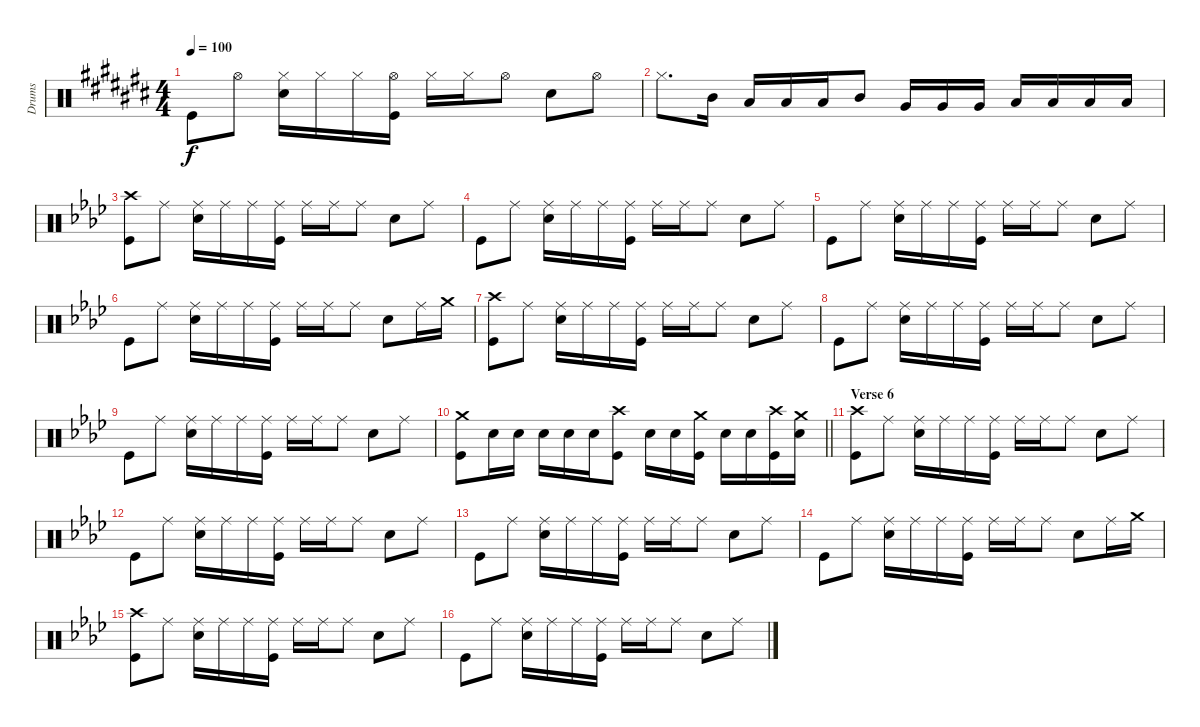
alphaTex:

\track ("Drums" "Drums") {instrument percussion}
\staff {score}
\articulation defaults
\ts (4 4)
\tempo 100
\clef neutral
\ks c# "Kick (hit)".8{dy f} "Hi-Hat (open)".8
("Hi-Hat (closed)" "Snare (hit) 2").16 "Hi-Hat (closed)".16 "Hi-Hat (closed)".16 ("Hi-Hat (open)" "Kick (hit)").16 "Hi-Hat (closed)".16 "Hi-Hat (closed)".16 "Hi-Hat (open)".8 "Snare (hit) 2".8 "Hi-Hat (open)".8 |
"Hi-Hat (closed)".8{d} "Mid Tom (hit)".16 "Low Tom (hit)".16 "Low Tom (hit)".16 "Low Tom (hit)".16 "Mid Tom (hit)".8 "Very Low Tom (hit)".16 "Very Low Tom (hit)".16 "Very Low Tom (hit)".16 "Low Floor Tom (hit)".16 "Low Floor Tom (hit)".16 "Low Floor Tom (hit)".16 "Low Floor Tom (hit)".16 |
\ks ab
("Crash high (hit)" "Kick (hit)").8 "Ride (middle)".8 ("Ride (middle)" "Snare (hit) 2").16 "Ride (middle)".16 "Ride (middle)".16 ("Ride (middle)" "Kick (hit)").16 "Ride (middle)".16 "Ride (middle)".16 "Ride (middle)".8 "Snare (hit) 2".8 "Ride (middle)".8 |
"Kick (hit)".8 "Ride (middle)".8 ("Ride (middle)" "Snare (hit) 2").16 "Ride (middle)".16 "Ride (middle)".16 ("Ride (middle)" "Kick (hit)").16 "Ride (middle)".16 "Ride (middle)".16 "Ride (middle)".8 "Snare (hit) 2".8 "Ride (middle)".8 |
"Kick (hit)".8 "Ride (middle)".8 ("Ride (middle)" "Snare (hit) 2").16 "Ride (middle)".16 "Ride (middle)".16 ("Ride (middle)" "Kick (hit)").16 "Ride (middle)".16 "Ride (middle)".16 "Ride (middle)".8 "Snare (hit) 2".8 "Ride (middle)".8 |
"Kick (hit)".8 "Ride (middle)".8 ("Ride (middle)" "Snare (hit) 2").16 "Ride (middle)".16 "Ride (middle)".16 ("Ride (middle)" "Kick (hit)").16 "Ride (middle)".16 "Ride (middle)".16 "Ride (middle)".8 "Snare (hit) 2".8 "Ride (middle)".16 "Crash medium (hit)".16 |
("Crash high (hit)" "Kick (hit)").8 "Ride (middle)".8 ("Ride (middle)" "Snare (hit) 2").16 "Ride (middle)".16 "Ride (middle)".16 ("Ride (middle)" "Kick (hit)").16 "Ride (middle)".16 "Ride (middle)".16 "Ride (middle)".8 "Snare (hit) 2".8 "Ride (middle)".8 |
"Kick (hit)".8 "Ride (middle)".8 ("Ride (middle)" "Snare (hit) 2").16 "Ride (middle)".16 "Ride (middle)".16 ("Ride (middle)" "Kick (hit)").16 "Ride (middle)".16 "Ride (middle)".16 "Ride (middle)".8 "Snare (hit) 2".8 "Ride (middle)".8 |
"Kick (hit)".8 "Ride (middle)".8 ("Ride (middle)" "Snare (hit) 2").16 "Ride (middle)".16 "Ride (middle)".16 ("Ride (middle)" "Kick (hit)").16 "Ride (middle)".16 "Ride (middle)".16 "Ride (middle)".8 "Snare (hit) 2".8 "Ride (middle)".8 |
\barLineRight lightlight
("Crash medium (hit)" "Kick (hit)").8 "Snare (hit) 2".16 "Snare (hit) 2".16 "Snare (hit) 2".16 "Snare (hit) 2".16 "Snare (hit) 2".16 ("Crash high (hit)" "Kick (hit)").8 "Snare (hit) 2".16 "Snare (hit) 2".16 ("Crash medium (hit)" "Kick (hit)").16 "Snare (hit) 2".16 "Snare (hit) 2".16 ("Crash high (hit)" "Kick (hit)").16 ("Crash medium (hit)" "Snare (hit) 2").16 |
\section ("" "Verse 6")
("Crash high (hit)" "Kick (hit)").8 "Ride (middle)".8 ("Ride (middle)" "Snare (hit) 2").16 "Ride (middle)".16 "Ride (middle)".16 ("Ride (middle)" "Kick (hit)").16 "Ride (middle)".16 "Ride (middle)".16 "Ride (middle)".8 "Snare (hit) 2".8 "Ride (middle)".8 |
"Kick (hit)".8 "Ride (middle)".8 ("Ride (middle)" "Snare (hit) 2").16 "Ride (middle)".16 "Ride (middle)".16 ("Ride (middle)" "Kick (hit)").16 "Ride (middle)".16 "Ride (middle)".16 "Ride (middle)".8 "Snare (hit) 2".8 "Ride (middle)".8 |
"Kick (hit)".8 "Ride (middle)".8 ("Ride (middle)" "Snare (hit) 2").16 "Ride (middle)".16 "Ride (middle)".16 ("Ride (middle)" "Kick (hit)").16 "Ride (middle)".16 "Ride (middle)".16 "Ride (middle)".8 "Snare (hit) 2".8 "Ride (middle)".8 |
"Kick (hit)".8 "Ride (middle)".8 ("Ride (middle)" "Snare (hit) 2").16 "Ride (middle)".16 "Ride (middle)".16 ("Ride (middle)" "Kick (hit)").16 "Ride (middle)".16 "Ride (middle)".16 "Ride (middle)".8 "Snare (hit) 2".8 "Ride (middle)".16 "Crash medium (hit)".16 |
("Crash high (hit)" "Kick (hit)").8 "Ride (middle)".8 ("Ride (middle)" "Snare (hit) 2").16 "Ride (middle)".16 "Ride (middle)".16 ("Ride (middle)" "Kick (hit)").16 "Ride (middle)".16 "Ride (middle)".16 "Ride (middle)".8 "Snare (hit) 2".8 "Ride (middle)".8 |
"Kick (hit)".8 "Ride (middle)".8 ("Ride (middle)" "Snare (hit) 2").16 "Ride (middle)".16 "Ride (middle)".16 ("Ride (middle)" "Kick (hit)").16 "Ride (middle)".16 "Ride (middle)".16 "Ride (middle)".8 "Snare (hit) 2".8 "Ride (middle)".8
